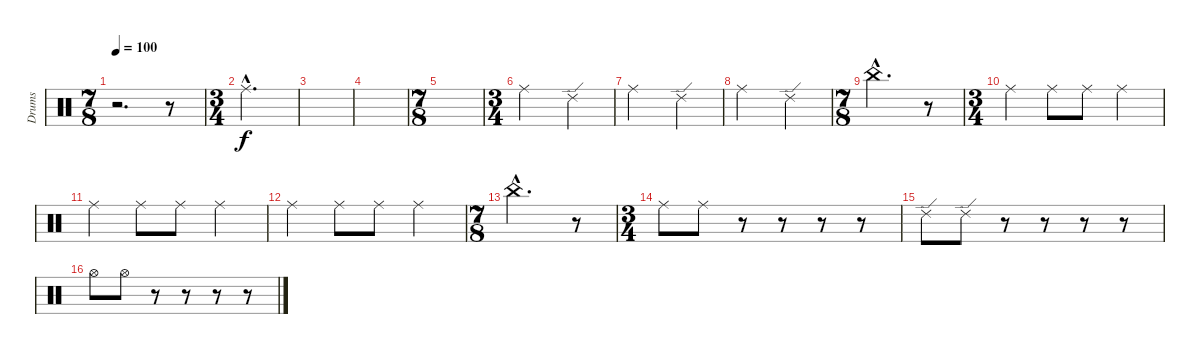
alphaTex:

\track ("Drums" "Drums") {instrument percussion}
\staff {score}
\articulation defaults
\ts (7 8)
\tempo 100
\clef neutral
\ks c
r.2{d dy f} r.8 |
\ts (3 4)
"Ride (middle)"{hac}.2{d} |
|
|
\ts (7 8)
|
\ts (3 4)
"Ride (middle)".2 "Ride (edge) 2".4 |
"Ride (middle)".2 "Ride (edge) 2".4 |
"Ride (middle)".2 "Ride (edge) 2".4 |
\ts (7 8)
"China (hit)"{hac}.2{d} r.8 |
\ts (3 4)
"Ride (middle)".4 "Ride (middle)".8 "Ride (middle)".8 "Ride (middle)".4 |
"Ride (middle)".4 "Ride (middle)".8 "Ride (middle)".8 "Ride (middle)".4 |
"Ride (middle)".4 "Ride (middle)".8 "Ride (middle)".8 "Ride (middle)".4 |
\ts (7 8)
"China (hit)"{hac}.2{d} r.8 |
\ts (3 4)
"Ride (middle)".8 "Ride (middle)".8 r.8 r.8 r.8 r.8 |
"Ride (edge) 2".8 "Ride (edge) 2".8 r.8 r.8 r.8 r.8 |
"Hi-Hat (open)".8 "Hi-Hat (open)".8 r.8 r.8 r.8 r.8
